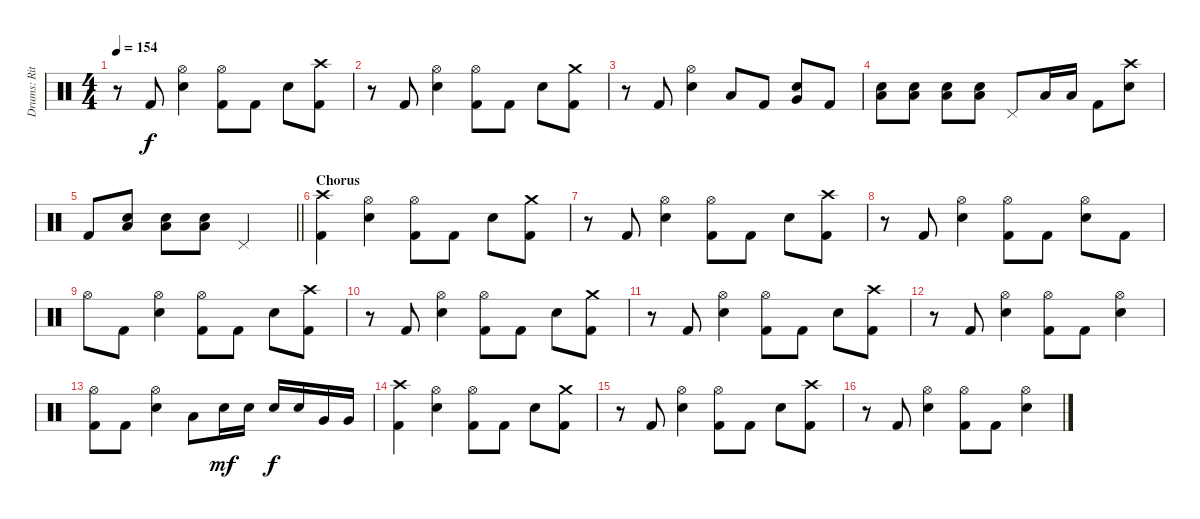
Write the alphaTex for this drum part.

\track ("Drums: Ritsu Tainaka" "Drums: Rit") {instrument percussion}
\staff {score}
\articulation defaults
\ts (4 4)
\tempo 154
\clef neutral
\ks c
r.8{dy f} "Kick (hit) 2".8 ("Hi-Hat (open)" "Electric Snare (hit)").4 ("Hi-Hat (open)" "Kick (hit) 2").8 "Kick (hit) 2".8 "Electric Snare (hit)".8 ("Crash high (hit)" "Kick (hit) 2").8 |
r.8 "Kick (hit) 2".8 ("Hi-Hat (open)" "Electric Snare (hit)").4 ("Hi-Hat (open)" "Kick (hit) 2").8 "Kick (hit) 2".8 "Electric Snare (hit)".8 ("Crash medium (hit)" "Kick (hit) 2").8 |
r.8 "Kick (hit) 2".8 ("Hi-Hat (open)" "Electric Snare (hit)").4 "Low Tom (hit)".8 "Kick (hit) 2".8 ("Electric Snare (hit)" "Very Low Tom (hit)").8 "Kick (hit) 2".8 |
("Electric Snare (hit)" "Low Floor Tom (hit)").8 ("Electric Snare (hit)" "Low Floor Tom (hit)").8 ("Electric Snare (hit)" "Low Floor Tom (hit)").8 ("Electric Snare (hit)" "Low Floor Tom (hit)").8 "Pedal Hi-Hat (hit)".8 "Low Floor Tom (hit)".16 "Low Floor Tom (hit)".16 "Kick (hit) 2".8 ("Crash high (hit)" "Electric Snare (hit)").8 |
\barLineRight lightlight "Kick (hit) 2".8
("Electric Snare (hit)" "Low Floor Tom (hit)").8 ("Electric Snare (hit)" "Low Floor Tom (hit)").8 ("Electric Snare (hit)" "Low Floor Tom (hit)").8 "Pedal Hi-Hat (hit)".2 |
\section ("" "Chorus")
("Crash high (hit)" "Kick (hit) 2").4 ("Hi-Hat (open)" "Electric Snare (hit)").4 ("Hi-Hat (open)" "Kick (hit) 2").8 "Kick (hit) 2".8 "Electric Snare (hit)".8 ("Crash medium (hit)" "Kick (hit) 2").8 |
r.8 "Kick (hit) 2".8 ("Hi-Hat (open)" "Electric Snare (hit)").4 ("Hi-Hat (open)" "Kick (hit) 2").8 "Kick (hit) 2".8 "Electric Snare (hit)".8 ("Crash high (hit)" "Kick (hit) 2").8 |
r.8 "Kick (hit) 2".8 ("Hi-Hat (open)" "Electric Snare (hit)").4 ("Hi-Hat (open)" "Kick (hit) 2").8 "Kick (hit) 2".8 ("Hi-Hat (open)" "Electric Snare (hit)").8 "Kick (hit) 2".8 |
"Hi-Hat (open)".8 "Kick (hit) 2".8 ("Hi-Hat (open)" "Electric Snare (hit)").4 ("Hi-Hat (open)" "Kick (hit) 2").8 "Kick (hit) 2".8 "Electric Snare (hit)".8 ("Crash high (hit)" "Kick (hit) 2").8 |
r.8 "Kick (hit) 2".8 ("Hi-Hat (open)" "Electric Snare (hit)").4 ("Hi-Hat (open)" "Kick (hit) 2").8 "Kick (hit) 2".8 "Electric Snare (hit)".8 ("Crash medium (hit)" "Kick (hit) 2").8 |
r.8 "Kick (hit) 2".8 ("Hi-Hat (open)" "Electric Snare (hit)").4 ("Hi-Hat (open)" "Kick (hit) 2").8 "Kick (hit) 2".8 "Electric Snare (hit)".8 ("Crash high (hit)" "Kick (hit) 2").8 |
r.8 "Kick (hit) 2".8 ("Hi-Hat (open)" "Electric Snare (hit)").4 ("Hi-Hat (open)" "Kick (hit) 2").8 "Kick (hit) 2".8 ("Hi-Hat (open)" "Electric Snare (hit)").4 |
("Hi-Hat (open)" "Kick (hit) 2").8 "Kick (hit) 2".8 ("Hi-Hat (open)" "Electric Snare (hit)").4 "Low Tom (hit)".8 "Electric Snare (hit)".16{dy mf} "Electric Snare (hit)".16 "Electric Snare (hit)".16{dy f} "Electric Snare (hit)".16 "Very Low Tom (hit)".16 "Very Low Tom (hit)".16 |
("Crash high (hit)" "Kick (hit) 2").4 ("Hi-Hat (open)" "Electric Snare (hit)").4 ("Hi-Hat (open)" "Kick (hit) 2").8 "Kick (hit) 2".8 "Electric Snare (hit)".8 ("Crash medium (hit)" "Kick (hit) 2").8 |
r.8 "Kick (hit) 2".8 ("Hi-Hat (open)" "Electric Snare (hit)").4 ("Hi-Hat (open)" "Kick (hit) 2").8 "Kick (hit) 2".8 "Electric Snare (hit)".8 ("Crash high (hit)" "Kick (hit) 2").8 |
r.8 "Kick (hit) 2".8 ("Hi-Hat (open)" "Electric Snare (hit)").4 ("Hi-Hat (open)" "Kick (hit) 2").8 "Kick (hit) 2".8 ("Hi-Hat (open)" "Electric Snare (hit)").4
